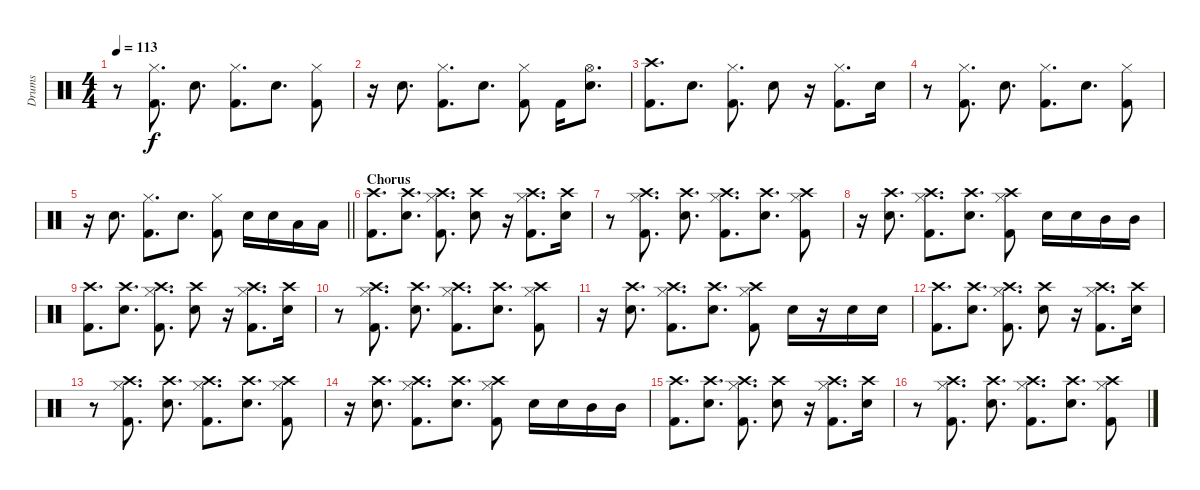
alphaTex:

\track ("Drums" "Drums") {instrument percussion}
\staff {score}
\articulation defaults
\ts (4 4)
\tempo 113
\clef neutral
\ks c
r.8{dy f} ("Hi-Hat (closed)" "Kick (hit) 2").8{d} "Electric Snare (hit)".8{d} ("Hi-Hat (closed)" "Kick (hit) 2").8{d} "Electric Snare (hit)".8{d} ("Hi-Hat (closed)" "Kick (hit) 2").8 |
r.16 "Electric Snare (hit)".8{d} ("Hi-Hat (closed)" "Kick (hit) 2").8{d} "Electric Snare (hit)".8{d} ("Hi-Hat (closed)" "Kick (hit) 2").8 "Kick (hit) 2".16 ("Hi-Hat (open)" "Electric Snare (hit)").8{d} |
("Crash high (hit)" "Kick (hit) 2").8{d} "Electric Snare (hit)".8{d} ("Hi-Hat (closed)" "Kick (hit) 2").8{d} "Electric Snare (hit)".8 r.16 ("Hi-Hat (closed)" "Kick (hit) 2").8{d} "Electric Snare (hit)".16 |
r.8 ("Hi-Hat (closed)" "Kick (hit) 2").8{d} "Electric Snare (hit)".8{d} ("Hi-Hat (closed)" "Kick (hit) 2").8{d} "Electric Snare (hit)".8{d} ("Hi-Hat (closed)" "Kick (hit) 2").8 |
\barLineRight lightlight
r.16 "Electric Snare (hit)".8{d} ("Hi-Hat (closed)" "Kick (hit) 2").8{d} "Electric Snare (hit)".8{d} ("Hi-Hat (closed)" "Kick (hit) 2").8 "Electric Snare (hit)".16 "Electric Snare (hit)".16 "Low Tom (hit)".16 "Low Tom (hit)".16 |
\section ("" "Chorus")
("Crash high (hit)" "Kick (hit) 2").8{d} ("Crash high (hit)" "Electric Snare (hit)").8{d} ("Crash high (hit)" "Hi-Hat (closed)" "Kick (hit) 2").8{d} ("Crash high (hit)" "Electric Snare (hit)").8 r.16 ("Crash high (hit)" "Hi-Hat (closed)" "Kick (hit) 2").8{d} ("Crash high (hit)" "Electric Snare (hit)").16 |
r.8 ("Crash high (hit)" "Hi-Hat (closed)" "Kick (hit) 2").8{d} ("Crash high (hit)" "Electric Snare (hit)").8{d} ("Crash high (hit)" "Hi-Hat (closed)" "Kick (hit) 2").8{d} ("Crash high (hit)" "Electric Snare (hit)").8{d} ("Crash high (hit)" "Hi-Hat (closed)" "Kick (hit) 2").8 |
r.16 ("Crash high (hit)" "Electric Snare (hit)").8{d} ("Crash high (hit)" "Hi-Hat (closed)" "Kick (hit) 2").8{d} ("Crash high (hit)" "Electric Snare (hit)").8{d} ("Crash high (hit)" "Hi-Hat (closed)" "Kick (hit) 2").8 "Electric Snare (hit)".16 "Electric Snare (hit)".16 "Mid Tom (hit)".16 "Mid Tom (hit)".16 |
("Crash high (hit)" "Kick (hit) 2").8{d} ("Crash high (hit)" "Electric Snare (hit)").8{d} ("Crash high (hit)" "Hi-Hat (closed)" "Kick (hit) 2").8{d} ("Crash high (hit)" "Electric Snare (hit)").8 r.16 ("Crash high (hit)" "Hi-Hat (closed)" "Kick (hit) 2").8{d} ("Crash high (hit)" "Electric Snare (hit)").16 |
r.8 ("Crash high (hit)" "Hi-Hat (closed)" "Kick (hit) 2").8{d} ("Crash high (hit)" "Electric Snare (hit)").8{d} ("Crash high (hit)" "Hi-Hat (closed)" "Kick (hit) 2").8{d} ("Crash high (hit)" "Electric Snare (hit)").8{d} ("Crash high (hit)" "Hi-Hat (closed)" "Kick (hit) 2").8 |
r.16 ("Crash high (hit)" "Electric Snare (hit)").8{d} ("Crash high (hit)" "Hi-Hat (closed)" "Kick (hit) 2").8{d} ("Crash high (hit)" "Electric Snare (hit)").8{d} ("Crash high (hit)" "Hi-Hat (closed)" "Kick (hit) 2").8 "Electric Snare (hit)".16 r.16 "Electric Snare (hit)".16 "Electric Snare (hit)".16 |
("Crash high (hit)" "Kick (hit) 2").8{d} ("Crash high (hit)" "Electric Snare (hit)").8{d} ("Crash high (hit)" "Hi-Hat (closed)" "Kick (hit) 2").8{d} ("Crash high (hit)" "Electric Snare (hit)").8 r.16 ("Crash high (hit)" "Hi-Hat (closed)" "Kick (hit) 2").8{d} ("Crash high (hit)" "Electric Snare (hit)").16 |
r.8 ("Crash high (hit)" "Hi-Hat (closed)" "Kick (hit) 2").8{d} ("Crash high (hit)" "Electric Snare (hit)").8{d} ("Crash high (hit)" "Hi-Hat (closed)" "Kick (hit) 2").8{d} ("Crash high (hit)" "Electric Snare (hit)").8{d} ("Crash high (hit)" "Hi-Hat (closed)" "Kick (hit) 2").8 |
r.16 ("Crash high (hit)" "Electric Snare (hit)").8{d} ("Crash high (hit)" "Hi-Hat (closed)" "Kick (hit) 2").8{d} ("Crash high (hit)" "Electric Snare (hit)").8{d} ("Crash high (hit)" "Hi-Hat (closed)" "Kick (hit) 2").8 "Electric Snare (hit)".16 "Electric Snare (hit)".16 "Mid Tom (hit)".16 "Mid Tom (hit)".16 |
("Crash high (hit)" "Kick (hit) 2").8{d} ("Crash high (hit)" "Electric Snare (hit)").8{d} ("Crash high (hit)" "Hi-Hat (closed)" "Kick (hit) 2").8{d} ("Crash high (hit)" "Electric Snare (hit)").8 r.16 ("Crash high (hit)" "Hi-Hat (closed)" "Kick (hit) 2").8{d} ("Crash high (hit)" "Electric Snare (hit)").16 |
r.8 ("Crash high (hit)" "Hi-Hat (closed)" "Kick (hit) 2").8{d} ("Crash high (hit)" "Electric Snare (hit)").8{d} ("Crash high (hit)" "Hi-Hat (closed)" "Kick (hit) 2").8{d} ("Crash high (hit)" "Electric Snare (hit)").8{d} ("Crash high (hit)" "Hi-Hat (closed)" "Kick (hit) 2").8
